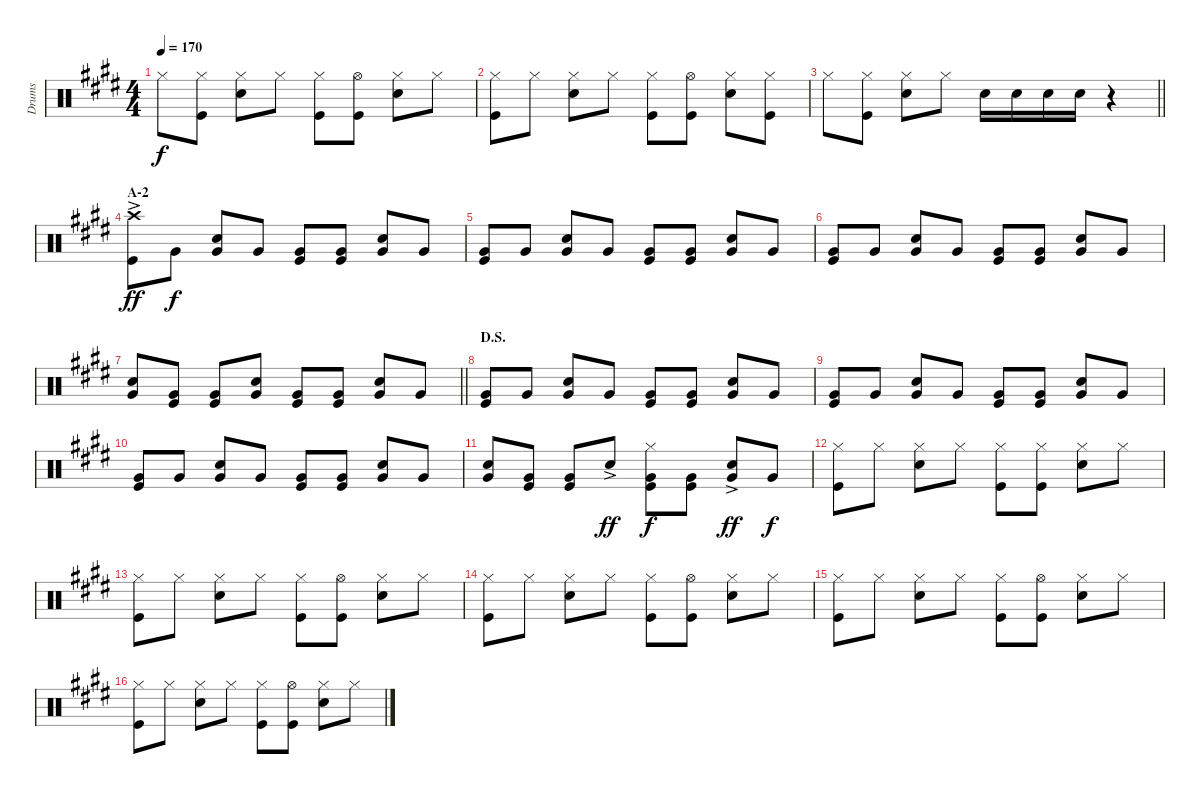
\track ("Drums" "Drums") {instrument percussion}
\staff {score}
\articulation defaults
\ts (4 4)
\tempo 170
\clef neutral
\ks e "Hi-Hat (closed)".8{dy f}
("Hi-Hat (closed)" "Kick (hit)").8 ("Hi-Hat (closed)" "Snare (hit) 2").8 "Hi-Hat (closed)".8 ("Hi-Hat (closed)" "Kick (hit)").8 ("Kick (hit)" "Hi-Hat (open)").8 ("Hi-Hat (closed)" "Snare (hit) 2").8 "Hi-Hat (closed)".8 |
("Hi-Hat (closed)" "Kick (hit)").8 "Hi-Hat (closed)".8 ("Hi-Hat (closed)" "Snare (hit) 2").8 "Hi-Hat (closed)".8 ("Hi-Hat (closed)" "Kick (hit)").8 ("Kick (hit)" "Hi-Hat (open)").8 ("Hi-Hat (closed)" "Snare (hit) 2").8 ("Hi-Hat (closed)" "Kick (hit)").8 |
\barLineRight lightlight "Hi-Hat (closed)".8
("Hi-Hat (closed)" "Kick (hit)").8 ("Hi-Hat (closed)" "Snare (hit) 2").8 "Hi-Hat (closed)".8 "Snare (hit) 2".16 "Snare (hit) 2".16 "Snare (hit) 2".16 "Snare (hit) 2".16 r.4 |
\section ("" "A-2")
("Crash high (hit)"{ac} "Kick (hit)").8{dy ff} "Very Low Tom (hit)".8{dy f} ("Very Low Tom (hit)" "Snare (hit) 2").8 "Very Low Tom (hit)".8 ("Very Low Tom (hit)" "Kick (hit)").8 ("Kick (hit)" "Very Low Tom (hit)").8 ("Very Low Tom (hit)" "Snare (hit) 2").8 "Very Low Tom (hit)".8 |
("Very Low Tom (hit)" "Kick (hit)").8 "Very Low Tom (hit)".8 ("Very Low Tom (hit)" "Snare (hit) 2").8 "Very Low Tom (hit)".8 ("Very Low Tom (hit)" "Kick (hit)").8 ("Kick (hit)" "Very Low Tom (hit)").8 ("Very Low Tom (hit)" "Snare (hit) 2").8 "Very Low Tom (hit)".8 |
("Very Low Tom (hit)" "Kick (hit)").8 "Very Low Tom (hit)".8 ("Very Low Tom (hit)" "Snare (hit) 2").8 "Very Low Tom (hit)".8 ("Very Low Tom (hit)" "Kick (hit)").8 ("Very Low Tom (hit)" "Kick (hit)").8 ("Very Low Tom (hit)" "Snare (hit) 2").8 "Very Low Tom (hit)".8 |
\barLineRight lightlight
("Very Low Tom (hit)" "Snare (hit) 2").8 ("Very Low Tom (hit)" "Kick (hit)").8 ("Very Low Tom (hit)" "Kick (hit)").8 ("Very Low Tom (hit)" "Snare (hit) 2").8 ("Very Low Tom (hit)" "Kick (hit)").8 ("Very Low Tom (hit)" "Kick (hit)").8 ("Very Low Tom (hit)" "Snare (hit) 2").8 "Very Low Tom (hit)".8 |
\section ("" "D.S.")
("Very Low Tom (hit)" "Kick (hit)").8 "Very Low Tom (hit)".8 ("Very Low Tom (hit)" "Snare (hit) 2").8 "Very Low Tom (hit)".8 ("Very Low Tom (hit)" "Kick (hit)").8 ("Very Low Tom (hit)" "Kick (hit)").8 ("Very Low Tom (hit)" "Snare (hit) 2").8 "Very Low Tom (hit)".8 |
("Very Low Tom (hit)" "Kick (hit)").8 "Very Low Tom (hit)".8 ("Very Low Tom (hit)" "Snare (hit) 2").8 "Very Low Tom (hit)".8 ("Very Low Tom (hit)" "Kick (hit)").8 ("Very Low Tom (hit)" "Kick (hit)").8 ("Very Low Tom (hit)" "Snare (hit) 2").8 "Very Low Tom (hit)".8 |
("Very Low Tom (hit)" "Kick (hit)").8 "Very Low Tom (hit)".8 ("Very Low Tom (hit)" "Snare (hit) 2").8 "Very Low Tom (hit)".8 ("Very Low Tom (hit)" "Kick (hit)").8 ("Very Low Tom (hit)" "Kick (hit)").8 ("Very Low Tom (hit)" "Snare (hit) 2").8 "Very Low Tom (hit)".8 |
("Very Low Tom (hit)" "Snare (hit) 2").8 ("Very Low Tom (hit)" "Kick (hit)").8 ("Very Low Tom (hit)" "Kick (hit)").8 "Snare (hit) 2"{ac}.8{dy ff} ("Very Low Tom (hit)" "Kick (hit)" "Hi-Hat (closed)").8{dy f} ("Very Low Tom (hit)" "Kick (hit)").8 ("Very Low Tom (hit)" "Snare (hit) 2"{ac}).8{dy ff} "Very Low Tom (hit)".8{dy f} |
("Hi-Hat (closed)" "Kick (hit)").8 "Hi-Hat (closed)".8 ("Hi-Hat (closed)" "Snare (hit) 2").8 "Hi-Hat (closed)".8 ("Hi-Hat (closed)" "Kick (hit)").8 ("Kick (hit)" "Hi-Hat (closed)").8 ("Hi-Hat (closed)" "Snare (hit) 2").8 "Hi-Hat (closed)".8 |
("Hi-Hat (closed)" "Kick (hit)").8 "Hi-Hat (closed)".8 ("Hi-Hat (closed)" "Snare (hit) 2").8 "Hi-Hat (closed)".8 ("Hi-Hat (closed)" "Kick (hit)").8 ("Kick (hit)" "Hi-Hat (open)").8 ("Hi-Hat (closed)" "Snare (hit) 2").8 "Hi-Hat (closed)".8 |
("Hi-Hat (closed)" "Kick (hit)").8 "Hi-Hat (closed)".8 ("Hi-Hat (closed)" "Snare (hit) 2").8 "Hi-Hat (closed)".8 ("Hi-Hat (closed)" "Kick (hit)").8 ("Kick (hit)" "Hi-Hat (open)").8 ("Hi-Hat (closed)" "Snare (hit) 2").8 "Hi-Hat (closed)".8 |
("Hi-Hat (closed)" "Kick (hit)").8 "Hi-Hat (closed)".8 ("Hi-Hat (closed)" "Snare (hit) 2").8 "Hi-Hat (closed)".8 ("Hi-Hat (closed)" "Kick (hit)").8 ("Kick (hit)" "Hi-Hat (open)").8 ("Hi-Hat (closed)" "Snare (hit) 2").8 "Hi-Hat (closed)".8 |
("Hi-Hat (closed)" "Kick (hit)").8 "Hi-Hat (closed)".8 ("Hi-Hat (closed)" "Snare (hit) 2").8 "Hi-Hat (closed)".8 ("Hi-Hat (closed)" "Kick (hit)").8 ("Kick (hit)" "Hi-Hat (open)").8 ("Hi-Hat (closed)" "Snare (hit) 2").8 "Hi-Hat (closed)".8
